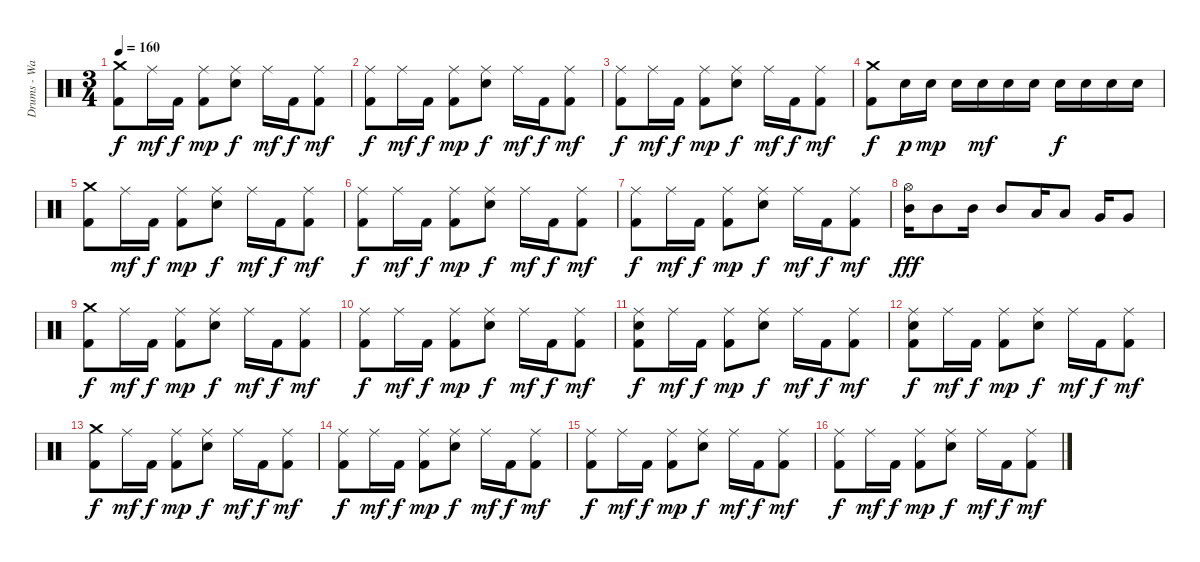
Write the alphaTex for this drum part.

\track ("Drums - Ward" "Drums - Wa") {instrument percussion}
\staff {score}
\articulation defaults
\ts (3 4)
\tempo 160
\clef neutral
\ks c
("Crash medium (hit)" "Kick (hit) 2").8{dy f} "Ride (middle)".16{dy mf} "Kick (hit) 2".16{dy f} ("Ride (middle)" "Kick (hit) 2").8{dy mp} ("Ride (middle)" "Electric Snare (hit)").8{dy f} "Ride (middle)".16{dy mf} "Kick (hit) 2".16{dy f} ("Ride (middle)" "Kick (hit) 2").8{dy mf} |
("Ride (middle)" "Kick (hit) 2").8{dy f} "Ride (middle)".16{dy mf} "Kick (hit) 2".16{dy f} ("Ride (middle)" "Kick (hit) 2").8{dy mp} ("Ride (middle)" "Electric Snare (hit)").8{dy f} "Ride (middle)".16{dy mf} "Kick (hit) 2".16{dy f} ("Ride (middle)" "Kick (hit) 2").8{dy mf} |
("Ride (middle)" "Kick (hit) 2").8{dy f} "Ride (middle)".16{dy mf} "Kick (hit) 2".16{dy f} ("Ride (middle)" "Kick (hit) 2").8{dy mp} ("Ride (middle)" "Electric Snare (hit)").8{dy f} "Ride (middle)".16{dy mf} "Kick (hit) 2".16{dy f} ("Ride (middle)" "Kick (hit) 2").8{dy mf} |
("Crash medium (hit)" "Kick (hit) 2").8{dy f} "Electric Snare (hit)".16{dy p} "Electric Snare (hit)".16{dy mp} "Electric Snare (hit)".16 "Electric Snare (hit)".16{dy mf} "Electric Snare (hit)".16 "Electric Snare (hit)".16 "Electric Snare (hit)".16{dy f} "Electric Snare (hit)".16 "Electric Snare (hit)".16 "Electric Snare (hit)".16 |
("Crash medium (hit)" "Kick (hit) 2").8 "Ride (middle)".16{dy mf} "Kick (hit) 2".16{dy f} ("Ride (middle)" "Kick (hit) 2").8{dy mp} ("Ride (middle)" "Electric Snare (hit)").8{dy f} "Ride (middle)".16{dy mf} "Kick (hit) 2".16{dy f} ("Ride (middle)" "Kick (hit) 2").8{dy mf} |
("Ride (middle)" "Kick (hit) 2").8{dy f} "Ride (middle)".16{dy mf} "Kick (hit) 2".16{dy f} ("Ride (middle)" "Kick (hit) 2").8{dy mp} ("Ride (middle)" "Electric Snare (hit)").8{dy f} "Ride (middle)".16{dy mf} "Kick (hit) 2".16{dy f} ("Ride (middle)" "Kick (hit) 2").8{dy mf} |
("Ride (middle)" "Kick (hit) 2").8{dy f} "Ride (middle)".16{dy mf} "Kick (hit) 2".16{dy f} ("Ride (middle)" "Kick (hit) 2").8{dy mp} ("Ride (middle)" "Electric Snare (hit)").8{dy f} "Ride (middle)".16{dy mf} "Kick (hit) 2".16{dy f} ("Ride (middle)" "Kick (hit) 2").8{dy mf} |
("Hi-Hat (open)" "Mid Tom (hit)").16{dy fff} "Mid Tom (hit)".8 "Mid Tom (hit)".16 "Mid Tom (hit)".8 "Low Tom (hit)".16 "Low Tom (hit)".8 "Very Low Tom (hit)".16 "Very Low Tom (hit)".8 |
("Crash medium (hit)" "Kick (hit) 2").8{dy f} "Ride (middle)".16{dy mf} "Kick (hit) 2".16{dy f} ("Ride (middle)" "Kick (hit) 2").8{dy mp} ("Ride (middle)" "Electric Snare (hit)").8{dy f} "Ride (middle)".16{dy mf} "Kick (hit) 2".16{dy f} ("Ride (middle)" "Kick (hit) 2").8{dy mf} |
("Ride (middle)" "Kick (hit) 2").8{dy f} "Ride (middle)".16{dy mf} "Kick (hit) 2".16{dy f} ("Ride (middle)" "Kick (hit) 2").8{dy mp} ("Ride (middle)" "Electric Snare (hit)").8{dy f} "Ride (middle)".16{dy mf} "Kick (hit) 2".16{dy f} ("Ride (middle)" "Kick (hit) 2").8{dy mf} |
("Ride (middle)" "Electric Snare (hit)" "Kick (hit) 2").8{dy f} "Ride (middle)".16{dy mf} "Kick (hit) 2".16{dy f} ("Ride (middle)" "Kick (hit) 2").8{dy mp} ("Ride (middle)" "Electric Snare (hit)").8{dy f} "Ride (middle)".16{dy mf} "Kick (hit) 2".16{dy f} ("Ride (middle)" "Kick (hit) 2").8{dy mf} |
("Ride (middle)" "Electric Snare (hit)" "Kick (hit) 2").8{dy f} "Ride (middle)".16{dy mf} "Kick (hit) 2".16{dy f} ("Ride (middle)" "Kick (hit) 2").8{dy mp} ("Ride (middle)" "Electric Snare (hit)").8{dy f} "Ride (middle)".16{dy mf} "Kick (hit) 2".16{dy f} ("Ride (middle)" "Kick (hit) 2").8{dy mf} |
("Crash medium (hit)" "Kick (hit) 2").8{dy f} "Ride (middle)".16{dy mf} "Kick (hit) 2".16{dy f} ("Ride (middle)" "Kick (hit) 2").8{dy mp} ("Ride (middle)" "Electric Snare (hit)").8{dy f} "Ride (middle)".16{dy mf} "Kick (hit) 2".16{dy f} ("Ride (middle)" "Kick (hit) 2").8{dy mf} |
("Ride (middle)" "Kick (hit) 2").8{dy f} "Ride (middle)".16{dy mf} "Kick (hit) 2".16{dy f} ("Ride (middle)" "Kick (hit) 2").8{dy mp} ("Ride (middle)" "Electric Snare (hit)").8{dy f} "Ride (middle)".16{dy mf} "Kick (hit) 2".16{dy f} ("Ride (middle)" "Kick (hit) 2").8{dy mf} |
("Ride (middle)" "Kick (hit) 2").8{dy f} "Ride (middle)".16{dy mf} "Kick (hit) 2".16{dy f} ("Ride (middle)" "Kick (hit) 2").8{dy mp} ("Ride (middle)" "Electric Snare (hit)").8{dy f} "Ride (middle)".16{dy mf} "Kick (hit) 2".16{dy f} ("Ride (middle)" "Kick (hit) 2").8{dy mf} |
("Ride (middle)" "Kick (hit) 2").8{dy f} "Ride (middle)".16{dy mf} "Kick (hit) 2".16{dy f} ("Ride (middle)" "Kick (hit) 2").8{dy mp} ("Ride (middle)" "Electric Snare (hit)").8{dy f} "Ride (middle)".16{dy mf} "Kick (hit) 2".16{dy f} ("Ride (middle)" "Kick (hit) 2").8{dy mf}
